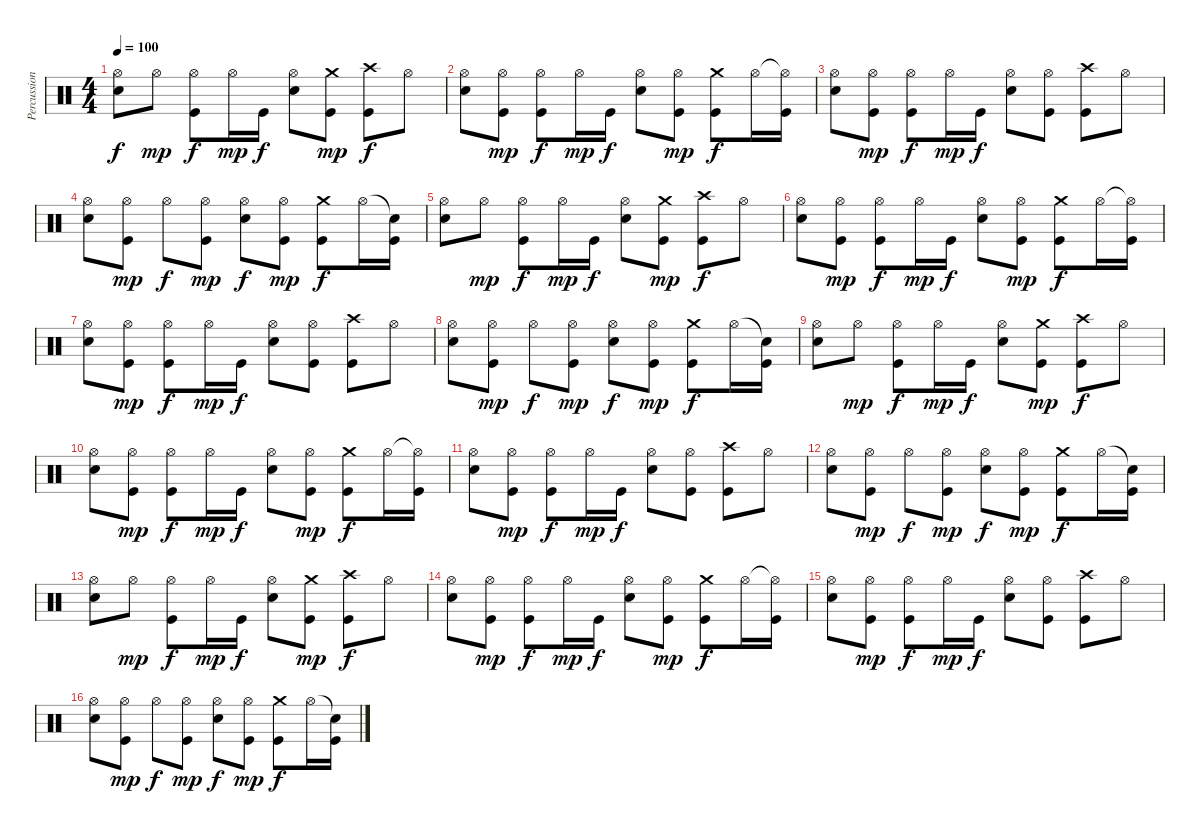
\track ("Percussion" "Percussion") {instrument percussion}
\staff {score}
\articulation defaults
\ts (4 4)
\tempo 100
\clef neutral
\ks c
("Hi-Hat (open)" "Electric Snare (hit)").8{dy f} "Hi-Hat (open)".8{dy mp} ("Hi-Hat (open)" "Kick (hit)").8{dy f} "Hi-Hat (open)".16{dy mp} "Kick (hit)".16{dy f} ("Hi-Hat (open)" "Electric Snare (hit)").8 ("Crash medium (hit)" "Kick (hit)").8{dy mp} ("Crash high (hit)" "Kick (hit)").8{dy f} "Hi-Hat (open)".8 |
("Hi-Hat (open)" "Electric Snare (hit)").8 ("Hi-Hat (open)" "Kick (hit)").8{dy mp} ("Hi-Hat (open)" "Kick (hit)").8{dy f} "Hi-Hat (open)".16{dy mp} "Kick (hit)".16{dy f} ("Hi-Hat (open)" "Electric Snare (hit)").8 ("Hi-Hat (open)" "Kick (hit)").8{dy mp} ("Crash medium (hit)" "Kick (hit)").8{dy f} "Hi-Hat (open)".16 ("Hi-Hat (open)"{t} "Kick (hit)").16 |
("Hi-Hat (open)" "Electric Snare (hit)").8 ("Hi-Hat (open)" "Kick (hit)").8{dy mp} ("Hi-Hat (open)" "Kick (hit)").8{dy f} "Hi-Hat (open)".16{dy mp} "Kick (hit)".16{dy f} ("Hi-Hat (open)" "Electric Snare (hit)").8 ("Hi-Hat (open)" "Kick (hit)").8 ("Crash high (hit)" "Kick (hit)").8 "Hi-Hat (open)".8 |
("Hi-Hat (open)" "Electric Snare (hit)").8 ("Hi-Hat (open)" "Kick (hit)").8{dy mp} "Hi-Hat (open)".8{dy f} ("Hi-Hat (open)" "Kick (hit)").8{dy mp} ("Hi-Hat (open)" "Electric Snare (hit)").8{dy f} ("Hi-Hat (open)" "Kick (hit)").8{dy mp} ("Crash medium (hit)" "Kick (hit)").8{dy f} "Hi-Hat (open)".16 ("Snare (hit)"{t} "Kick (hit)").16 |
("Hi-Hat (open)" "Electric Snare (hit)").8 "Hi-Hat (open)".8{dy mp} ("Hi-Hat (open)" "Kick (hit)").8{dy f} "Hi-Hat (open)".16{dy mp} "Kick (hit)".16{dy f} ("Hi-Hat (open)" "Electric Snare (hit)").8 ("Crash medium (hit)" "Kick (hit)").8{dy mp} ("Crash high (hit)" "Kick (hit)").8{dy f} "Hi-Hat (open)".8 |
("Hi-Hat (open)" "Electric Snare (hit)").8 ("Hi-Hat (open)" "Kick (hit)").8{dy mp} ("Hi-Hat (open)" "Kick (hit)").8{dy f} "Hi-Hat (open)".16{dy mp} "Kick (hit)".16{dy f} ("Hi-Hat (open)" "Electric Snare (hit)").8 ("Hi-Hat (open)" "Kick (hit)").8{dy mp} ("Crash medium (hit)" "Kick (hit)").8{dy f} "Hi-Hat (open)".16 ("Hi-Hat (open)"{t} "Kick (hit)").16 |
("Hi-Hat (open)" "Electric Snare (hit)").8 ("Hi-Hat (open)" "Kick (hit)").8{dy mp} ("Hi-Hat (open)" "Kick (hit)").8{dy f} "Hi-Hat (open)".16{dy mp} "Kick (hit)".16{dy f} ("Hi-Hat (open)" "Electric Snare (hit)").8 ("Hi-Hat (open)" "Kick (hit)").8 ("Crash high (hit)" "Kick (hit)").8 "Hi-Hat (open)".8 |
("Hi-Hat (open)" "Electric Snare (hit)").8 ("Hi-Hat (open)" "Kick (hit)").8{dy mp} "Hi-Hat (open)".8{dy f} ("Hi-Hat (open)" "Kick (hit)").8{dy mp} ("Hi-Hat (open)" "Electric Snare (hit)").8{dy f} ("Hi-Hat (open)" "Kick (hit)").8{dy mp} ("Crash medium (hit)" "Kick (hit)").8{dy f} "Hi-Hat (open)".16 ("Snare (hit)"{t} "Kick (hit)").16 |
("Hi-Hat (open)" "Electric Snare (hit)").8 "Hi-Hat (open)".8{dy mp} ("Hi-Hat (open)" "Kick (hit)").8{dy f} "Hi-Hat (open)".16{dy mp} "Kick (hit)".16{dy f} ("Hi-Hat (open)" "Electric Snare (hit)").8 ("Crash medium (hit)" "Kick (hit)").8{dy mp} ("Crash high (hit)" "Kick (hit)").8{dy f} "Hi-Hat (open)".8 |
("Hi-Hat (open)" "Electric Snare (hit)").8 ("Hi-Hat (open)" "Kick (hit)").8{dy mp} ("Hi-Hat (open)" "Kick (hit)").8{dy f} "Hi-Hat (open)".16{dy mp} "Kick (hit)".16{dy f} ("Hi-Hat (open)" "Electric Snare (hit)").8 ("Hi-Hat (open)" "Kick (hit)").8{dy mp} ("Crash medium (hit)" "Kick (hit)").8{dy f} "Hi-Hat (open)".16 ("Hi-Hat (open)"{t} "Kick (hit)").16 |
("Hi-Hat (open)" "Electric Snare (hit)").8 ("Hi-Hat (open)" "Kick (hit)").8{dy mp} ("Hi-Hat (open)" "Kick (hit)").8{dy f} "Hi-Hat (open)".16{dy mp} "Kick (hit)".16{dy f} ("Hi-Hat (open)" "Electric Snare (hit)").8 ("Hi-Hat (open)" "Kick (hit)").8 ("Crash high (hit)" "Kick (hit)").8 "Hi-Hat (open)".8 |
("Hi-Hat (open)" "Electric Snare (hit)").8 ("Hi-Hat (open)" "Kick (hit)").8{dy mp} "Hi-Hat (open)".8{dy f} ("Hi-Hat (open)" "Kick (hit)").8{dy mp} ("Hi-Hat (open)" "Electric Snare (hit)").8{dy f} ("Hi-Hat (open)" "Kick (hit)").8{dy mp} ("Crash medium (hit)" "Kick (hit)").8{dy f} "Hi-Hat (open)".16 ("Snare (hit)"{t} "Kick (hit)").16 |
("Hi-Hat (open)" "Electric Snare (hit)").8 "Hi-Hat (open)".8{dy mp} ("Hi-Hat (open)" "Kick (hit)").8{dy f} "Hi-Hat (open)".16{dy mp} "Kick (hit)".16{dy f} ("Hi-Hat (open)" "Electric Snare (hit)").8 ("Crash medium (hit)" "Kick (hit)").8{dy mp} ("Crash high (hit)" "Kick (hit)").8{dy f} "Hi-Hat (open)".8 |
("Hi-Hat (open)" "Electric Snare (hit)").8 ("Hi-Hat (open)" "Kick (hit)").8{dy mp} ("Hi-Hat (open)" "Kick (hit)").8{dy f} "Hi-Hat (open)".16{dy mp} "Kick (hit)".16{dy f} ("Hi-Hat (open)" "Electric Snare (hit)").8 ("Hi-Hat (open)" "Kick (hit)").8{dy mp} ("Crash medium (hit)" "Kick (hit)").8{dy f} "Hi-Hat (open)".16 ("Hi-Hat (open)"{t} "Kick (hit)").16 |
("Hi-Hat (open)" "Electric Snare (hit)").8 ("Hi-Hat (open)" "Kick (hit)").8{dy mp} ("Hi-Hat (open)" "Kick (hit)").8{dy f} "Hi-Hat (open)".16{dy mp} "Kick (hit)".16{dy f} ("Hi-Hat (open)" "Electric Snare (hit)").8 ("Hi-Hat (open)" "Kick (hit)").8 ("Crash high (hit)" "Kick (hit)").8 "Hi-Hat (open)".8 |
("Hi-Hat (open)" "Electric Snare (hit)").8 ("Hi-Hat (open)" "Kick (hit)").8{dy mp} "Hi-Hat (open)".8{dy f} ("Hi-Hat (open)" "Kick (hit)").8{dy mp} ("Hi-Hat (open)" "Electric Snare (hit)").8{dy f} ("Hi-Hat (open)" "Kick (hit)").8{dy mp} ("Crash medium (hit)" "Kick (hit)").8{dy f} "Hi-Hat (open)".16 ("Snare (hit)"{t} "Kick (hit)").16
